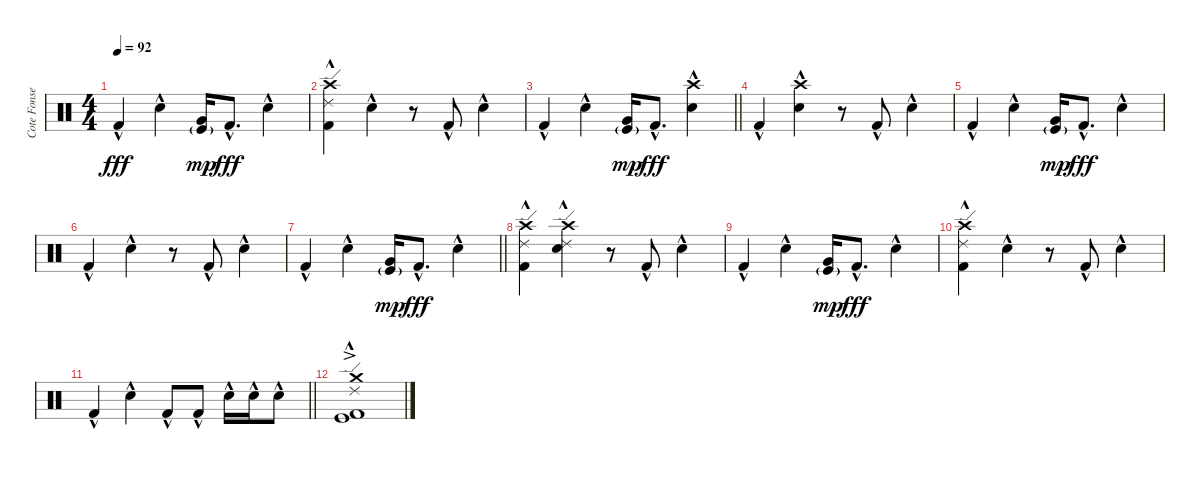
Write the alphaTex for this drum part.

\track ("Cote Fonsea" "Cote Fonse") {instrument percussion}
\staff {score}
\articulation defaults
\ts (4 4)
\tempo 92
\clef neutral
\ks c "Kick (hit) 2"{hac}.4{dy fff} "Snare (hit) 2"{hac}.4
("Very Low Tom (hit)" "Kick (hit)"{g}).16{dy mp} "Kick (hit) 2"{hac}.8{d dy fff} "Snare (hit) 2"{hac}.4 |
("Ride (edge) 2" "Crash high (hit)" "Kick (hit) 2"{hac}).4 "Snare (hit) 2"{hac}.4 r.8 "Kick (hit) 2"{hac}.8 "Snare (hit) 2"{hac}.4 |
\barLineRight lightlight "Kick (hit) 2"{hac}.4 "Snare (hit) 2"{hac}.4
("Very Low Tom (hit)" "Kick (hit)"{g}).16{dy mp} "Kick (hit) 2"{hac}.8{d dy fff} ("Crash high (hit)" "Snare (hit) 2"{hac}).4 |
"Kick (hit) 2"{hac}.4 ("Crash high (hit)" "Snare (hit) 2"{hac}).4 r.8 "Kick (hit) 2"{hac}.8 "Snare (hit) 2"{hac}.4 |
"Kick (hit) 2"{hac}.4 "Snare (hit) 2"{hac}.4 ("Very Low Tom (hit)" "Kick (hit)"{g}).16{dy mp} "Kick (hit) 2"{hac}.8{d dy fff} "Snare (hit) 2"{hac}.4 |
"Kick (hit) 2"{hac}.4 "Snare (hit) 2"{hac}.4 r.8 "Kick (hit) 2"{hac}.8 "Snare (hit) 2"{hac}.4 |
\barLineRight lightlight "Kick (hit) 2"{hac}.4 "Snare (hit) 2"{hac}.4
("Very Low Tom (hit)" "Kick (hit)"{g}).16{dy mp} "Kick (hit) 2"{hac}.8{d dy fff} "Snare (hit) 2"{hac}.4 |
("Ride (edge) 2" "Crash high (hit)" "Kick (hit) 2"{hac}).4 ("Ride (edge) 2" "Crash high (hit)" "Snare (hit) 2"{hac}).4 r.8 "Kick (hit) 2"{hac}.8 "Snare (hit) 2"{hac}.4 |
"Kick (hit) 2"{hac}.4 "Snare (hit) 2"{hac}.4 ("Very Low Tom (hit)" "Kick (hit)"{g}).16{dy mp} "Kick (hit) 2"{hac}.8{d dy fff} "Snare (hit) 2"{hac}.4 |
("Ride (edge) 2" "Crash high (hit)" "Kick (hit) 2"{hac}).4 "Snare (hit) 2"{hac}.4 r.8 "Kick (hit) 2"{hac}.8 "Snare (hit) 2"{hac}.4 |
\barLineRight lightlight "Kick (hit) 2"{hac}.4 "Snare (hit) 2"{hac}.4 "Kick (hit) 2"{hac}.8 "Kick (hit) 2"{hac}.8 "Snare (hit) 2"{hac}.16 "Snare (hit) 2"{hac}.16 "Snare (hit) 2"{hac}.8
|
("Ride (edge) 2" "Crash medium (hit)"{ac} "Kick (hit) 2"{hac} "Kick (hit)"{hac}).1
